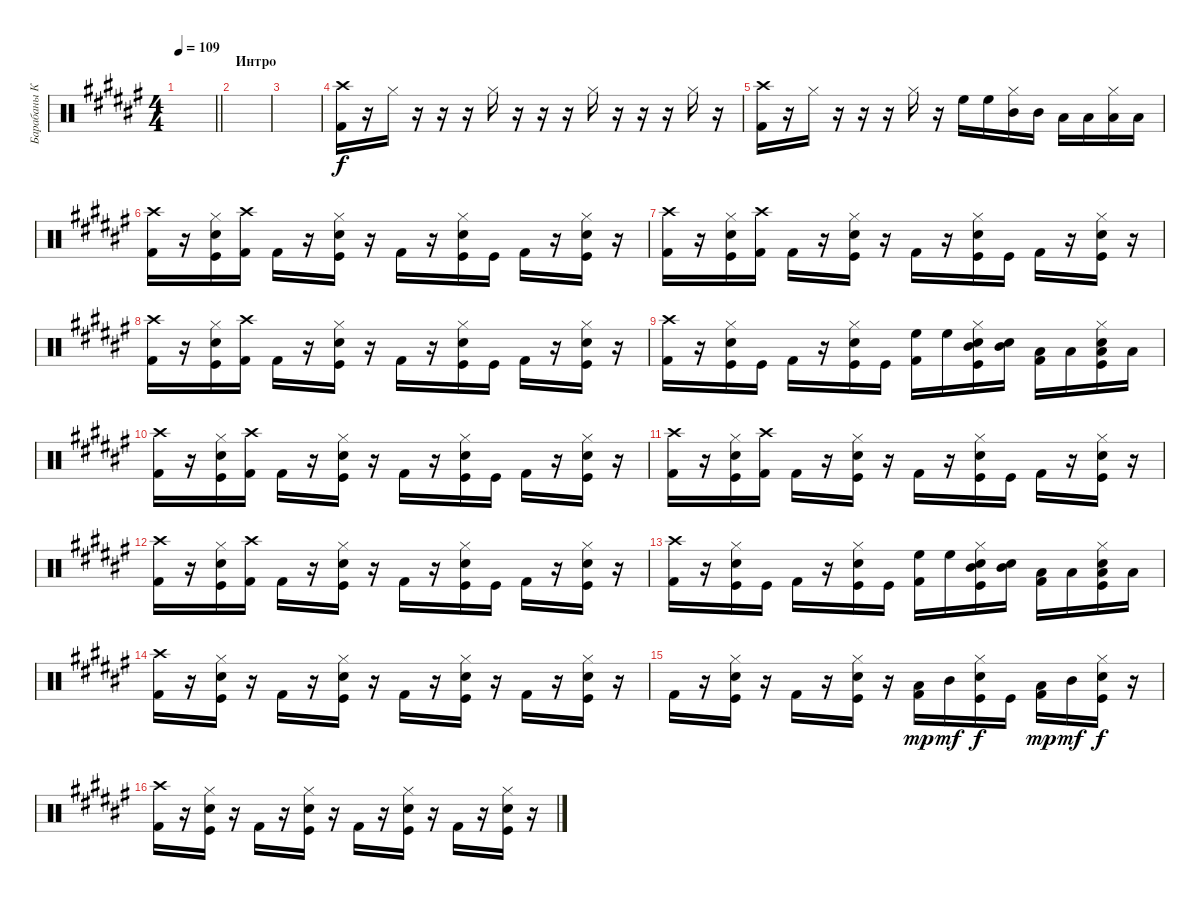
\track ("Барабаны Кольян" "Барабаны К") {instrument percussion}
\staff {score}
\articulation defaults
\ts (4 4)
\tempo 109
\clef neutral
\barLineRight lightlight
\ks f#
|
\section ("" "Интро")
|
|
("Crash high (hit)" "Kick (hit) 2").16 r.16 "Hi-Hat (closed)".16 r.16 r.16 r.16 "Hi-Hat (closed)".16 r.16 r.16 r.16 "Hi-Hat (closed)".16 r.16 r.16 r.16 "Hi-Hat (closed)".16 r.16 |
("Crash high (hit)" "Kick (hit) 2").16 r.16 "Hi-Hat (closed)".16 r.16 r.16 r.16 "Hi-Hat (closed)".16 r.16 "High Floor Tom (hit)".16 "High Floor Tom (hit)".16 ("Hi-Hat (closed)" "Mid Tom (hit)").16 "Mid Tom (hit)".16 "Low Tom (hit)".16 "Low Tom (hit)".16 ("Hi-Hat (closed)" "Low Floor Tom (hit)").16 "Low Floor Tom (hit)".16 |
("Crash high (hit)" "Kick (hit) 2").16 r.16 ("Hi-Hat (closed)" "Snare (hit) 2" "Kick (hit)").16 ("Crash high (hit)" "Kick (hit) 2").16 "Kick (hit) 2".16 r.16 ("Hi-Hat (closed)" "Snare (hit) 2" "Kick (hit)").16 r.16 "Kick (hit) 2".16 r.16 ("Hi-Hat (closed)" "Snare (hit) 2" "Kick (hit)").16 "Kick (hit)".16 "Kick (hit) 2".16 r.16 ("Hi-Hat (closed)" "Snare (hit) 2" "Kick (hit)").16 r.16 |
("Crash high (hit)" "Kick (hit) 2").16 r.16 ("Hi-Hat (closed)" "Snare (hit) 2" "Kick (hit)").16 ("Crash high (hit)" "Kick (hit) 2").16 "Kick (hit) 2".16 r.16 ("Hi-Hat (closed)" "Snare (hit) 2" "Kick (hit)").16 r.16 "Kick (hit) 2".16 r.16 ("Hi-Hat (closed)" "Snare (hit) 2" "Kick (hit)").16 "Kick (hit)".16 "Kick (hit) 2".16 r.16 ("Hi-Hat (closed)" "Snare (hit) 2" "Kick (hit)").16 r.16 |
("Crash high (hit)" "Kick (hit) 2").16 r.16 ("Hi-Hat (closed)" "Snare (hit) 2" "Kick (hit)").16 ("Crash high (hit)" "Kick (hit) 2").16 "Kick (hit) 2".16 r.16 ("Hi-Hat (closed)" "Snare (hit) 2" "Kick (hit)").16 r.16 "Kick (hit) 2".16 r.16 ("Hi-Hat (closed)" "Snare (hit) 2" "Kick (hit)").16 "Kick (hit)".16 "Kick (hit) 2".16 r.16 ("Hi-Hat (closed)" "Snare (hit) 2" "Kick (hit)").16 r.16 |
("Crash high (hit)" "Kick (hit) 2").16 r.16 ("Hi-Hat (closed)" "Snare (hit) 2" "Kick (hit)").16 "Kick (hit)".16 "Kick (hit) 2".16 r.16 ("Hi-Hat (closed)" "Snare (hit) 2" "Kick (hit)").16 "Kick (hit)".16 ("High Floor Tom (hit)" "Kick (hit) 2").16 "High Floor Tom (hit)".16 ("Hi-Hat (closed)" "Snare (hit) 2" "Mid Tom (hit)" "Kick (hit)").16 ("Snare (hit) 2" "Mid Tom (hit)").16 ("Low Tom (hit)" "Kick (hit) 2").16 "Low Tom (hit)".16 ("Hi-Hat (closed)" "Snare (hit) 2" "Low Floor Tom (hit)" "Kick (hit)").16 "Low Floor Tom (hit)".16 |
("Crash high (hit)" "Kick (hit) 2").16 r.16 ("Hi-Hat (closed)" "Snare (hit) 2" "Kick (hit)").16 ("Crash high (hit)" "Kick (hit) 2").16 "Kick (hit) 2".16 r.16 ("Hi-Hat (closed)" "Snare (hit) 2" "Kick (hit)").16 r.16 "Kick (hit) 2".16 r.16 ("Hi-Hat (closed)" "Snare (hit) 2" "Kick (hit)").16 "Kick (hit)".16 "Kick (hit) 2".16 r.16 ("Hi-Hat (closed)" "Snare (hit) 2" "Kick (hit)").16 r.16 |
("Crash high (hit)" "Kick (hit) 2").16 r.16 ("Hi-Hat (closed)" "Snare (hit) 2" "Kick (hit)").16 ("Crash high (hit)" "Kick (hit) 2").16 "Kick (hit) 2".16 r.16 ("Hi-Hat (closed)" "Snare (hit) 2" "Kick (hit)").16 r.16 "Kick (hit) 2".16 r.16 ("Hi-Hat (closed)" "Snare (hit) 2" "Kick (hit)").16 "Kick (hit)".16 "Kick (hit) 2".16 r.16 ("Hi-Hat (closed)" "Snare (hit) 2" "Kick (hit)").16 r.16 |
("Crash high (hit)" "Kick (hit) 2").16 r.16 ("Hi-Hat (closed)" "Snare (hit) 2" "Kick (hit)").16 ("Crash high (hit)" "Kick (hit) 2").16 "Kick (hit) 2".16 r.16 ("Hi-Hat (closed)" "Snare (hit) 2" "Kick (hit)").16 r.16 "Kick (hit) 2".16 r.16 ("Hi-Hat (closed)" "Snare (hit) 2" "Kick (hit)").16 "Kick (hit)".16 "Kick (hit) 2".16 r.16 ("Hi-Hat (closed)" "Snare (hit) 2" "Kick (hit)").16 r.16 |
("Crash high (hit)" "Kick (hit) 2").16 r.16 ("Hi-Hat (closed)" "Snare (hit) 2" "Kick (hit)").16 "Kick (hit)".16 "Kick (hit) 2".16 r.16 ("Hi-Hat (closed)" "Snare (hit) 2" "Kick (hit)").16 "Kick (hit)".16 ("High Floor Tom (hit)" "Kick (hit) 2").16 "High Floor Tom (hit)".16 ("Hi-Hat (closed)" "Snare (hit) 2" "Mid Tom (hit)" "Kick (hit)").16 ("Snare (hit) 2" "Mid Tom (hit)").16 ("Low Tom (hit)" "Kick (hit) 2").16 "Low Tom (hit)".16 ("Hi-Hat (closed)" "Snare (hit) 2" "Low Floor Tom (hit)" "Kick (hit)").16 "Low Floor Tom (hit)".16 |
("Crash high (hit)" "Kick (hit) 2").16 r.16 ("Hi-Hat (closed)" "Snare (hit) 2" "Kick (hit)").16 r.16 "Kick (hit) 2".16 r.16 ("Hi-Hat (closed)" "Snare (hit) 2" "Kick (hit)").16 r.16 "Kick (hit) 2".16 r.16 ("Hi-Hat (closed)" "Snare (hit) 2" "Kick (hit)").16 r.16 "Kick (hit) 2".16 r.16 ("Hi-Hat (closed)" "Snare (hit) 2" "Kick (hit)").16 r.16 |
"Kick (hit) 2".16 r.16 ("Hi-Hat (closed)" "Snare (hit) 2" "Kick (hit)").16 r.16 "Kick (hit) 2".16 r.16 ("Hi-Hat (closed)" "Snare (hit) 2" "Kick (hit)").16 r.16 ("Low Tom (hit)" "Kick (hit) 2").16{dy mp} "Mid Tom (hit)".16{dy mf} ("Hi-Hat (closed)" "Snare (hit) 2" "Kick (hit)").16{dy f} "Kick (hit)".16 ("Low Tom (hit)" "Kick (hit) 2").16{dy mp} "Mid Tom (hit)".16{dy mf} ("Hi-Hat (closed)" "Snare (hit) 2" "Kick (hit)").16{dy f} r.16 |
("Crash high (hit)" "Kick (hit) 2").16 r.16 ("Hi-Hat (closed)" "Snare (hit) 2" "Kick (hit)").16 r.16 "Kick (hit) 2".16 r.16 ("Hi-Hat (closed)" "Snare (hit) 2" "Kick (hit)").16 r.16 "Kick (hit) 2".16 r.16 ("Hi-Hat (closed)" "Snare (hit) 2" "Kick (hit)").16 r.16 "Kick (hit) 2".16 r.16 ("Hi-Hat (closed)" "Snare (hit) 2" "Kick (hit)").16 r.16
